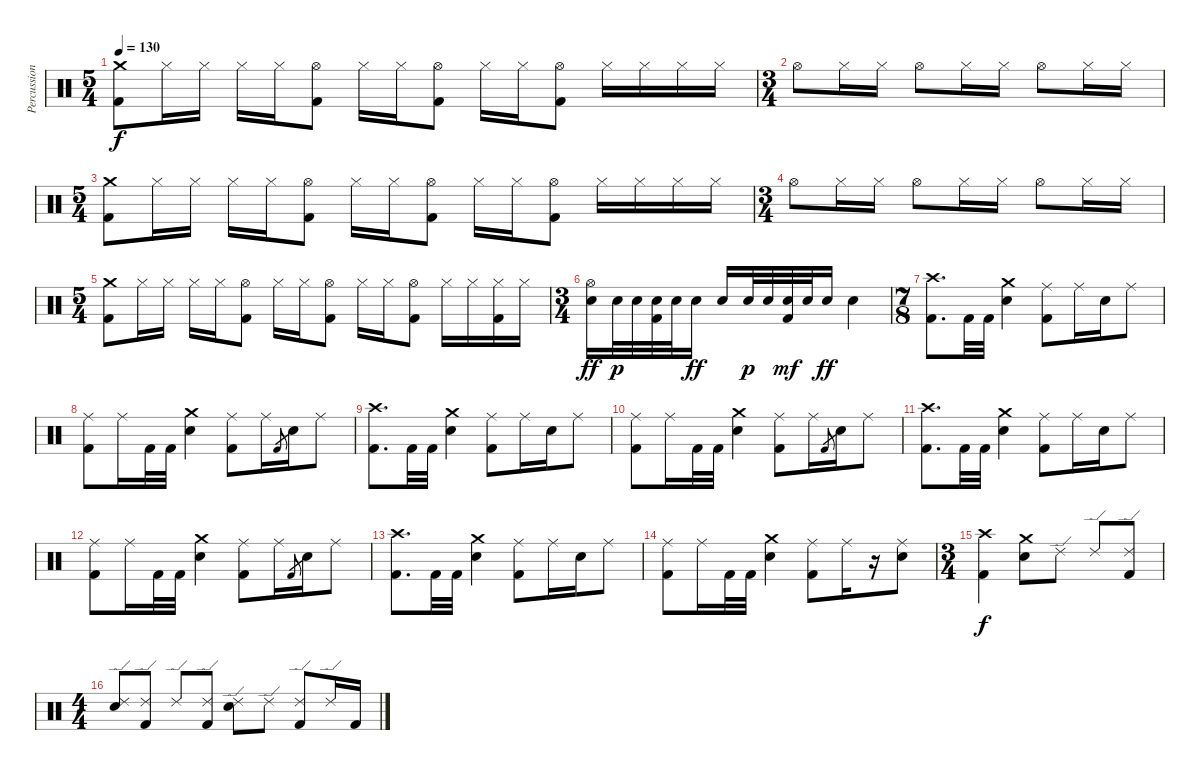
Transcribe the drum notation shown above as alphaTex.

\track ("Percussion" "Percussion") {instrument percussion}
\staff {score}
\articulation defaults
\ts (5 4)
\tempo 130
\clef neutral
\ks c
("Crash medium (hit)" "Kick (hit) 2").8{dy f} "Hi-Hat (closed)".16 "Hi-Hat (closed)".16 "Hi-Hat (closed)".16 "Hi-Hat (closed)".16 ("Hi-Hat (open)" "Kick (hit) 2").8 "Hi-Hat (closed)".16 "Hi-Hat (closed)".16 ("Hi-Hat (open)" "Kick (hit) 2").8 "Hi-Hat (closed)".16 "Hi-Hat (closed)".16 ("Hi-Hat (open)" "Kick (hit) 2").8 "Hi-Hat (closed)".16 "Hi-Hat (closed)".16 "Hi-Hat (closed)".16 "Hi-Hat (closed)".16 |
\ts (3 4)
"Hi-Hat (open)".8 "Hi-Hat (closed)".16 "Hi-Hat (closed)".16 "Hi-Hat (open)".8 "Hi-Hat (closed)".16 "Hi-Hat (closed)".16 "Hi-Hat (open)".8 "Hi-Hat (closed)".16 "Hi-Hat (closed)".16 |
\ts (5 4)
("Crash medium (hit)" "Kick (hit) 2").8 "Hi-Hat (closed)".16 "Hi-Hat (closed)".16 "Hi-Hat (closed)".16 "Hi-Hat (closed)".16 ("Hi-Hat (open)" "Kick (hit) 2").8 "Hi-Hat (closed)".16 "Hi-Hat (closed)".16 ("Hi-Hat (open)" "Kick (hit) 2").8 "Hi-Hat (closed)".16 "Hi-Hat (closed)".16 ("Hi-Hat (open)" "Kick (hit) 2").8 "Hi-Hat (closed)".16 "Hi-Hat (closed)".16 "Hi-Hat (closed)".16 "Hi-Hat (closed)".16 |
\ts (3 4)
"Hi-Hat (open)".8 "Hi-Hat (closed)".16 "Hi-Hat (closed)".16 "Hi-Hat (open)".8 "Hi-Hat (closed)".16 "Hi-Hat (closed)".16 "Hi-Hat (open)".8 "Hi-Hat (closed)".16 "Hi-Hat (closed)".16 |
\ts (5 4)
("Crash medium (hit)" "Kick (hit) 2").8 "Hi-Hat (closed)".16 "Hi-Hat (closed)".16 "Hi-Hat (closed)".16 "Hi-Hat (closed)".16 ("Hi-Hat (open)" "Kick (hit) 2").8 "Hi-Hat (closed)".16 "Hi-Hat (closed)".16 ("Hi-Hat (open)" "Kick (hit) 2").8 "Hi-Hat (closed)".16 "Hi-Hat (closed)".16 ("Hi-Hat (open)" "Kick (hit) 2").8 "Hi-Hat (closed)".16 "Hi-Hat (closed)".16 ("Hi-Hat (closed)" "Kick (hit) 2").16 "Hi-Hat (closed)".16 |
\ts (3 4)
("Hi-Hat (open)" "Electric Snare (hit)").16{dy ff} "Electric Snare (hit)".32{dy p} "Electric Snare (hit)".32 ("Electric Snare (hit)" "Kick (hit) 2").32 "Electric Snare (hit)".32 "Electric Snare (hit)".16{dy ff} "Electric Snare (hit)".16 "Electric Snare (hit)".32{dy p} "Electric Snare (hit)".32 ("Electric Snare (hit)" "Kick (hit) 2").32{dy mf} "Electric Snare (hit)".32 "Electric Snare (hit)".16{dy ff} "Electric Snare (hit)".4 |
\ts (7 8)
("Crash high (hit)" "Kick (hit) 2").8{d} "Kick (hit) 2".32 "Kick (hit) 2".32 ("Crash medium (hit)" "Electric Snare (hit)").4 ("Ride (middle)" "Kick (hit) 2").8 "Ride (middle)".16 "Electric Snare (hit)".16 "Ride (middle)".8 |
("Ride (middle)" "Kick (hit) 2").8 "Ride (middle)".16 "Kick (hit) 2".32 "Kick (hit) 2".32 ("Crash medium (hit)" "Electric Snare (hit)").4 ("Ride (middle)" "Kick (hit) 2").8 "Ride (middle)".16 "Kick (hit) 2".8{gr} "Electric Snare (hit)".16 "Ride (middle)".8 |
("Crash high (hit)" "Kick (hit) 2").8{d} "Kick (hit) 2".32 "Kick (hit) 2".32 ("Crash medium (hit)" "Electric Snare (hit)").4 ("Ride (middle)" "Kick (hit) 2").8 "Ride (middle)".16 "Electric Snare (hit)".16 "Ride (middle)".8 |
("Ride (middle)" "Kick (hit) 2").8 "Ride (middle)".16 "Kick (hit) 2".32 "Kick (hit) 2".32 ("Crash medium (hit)" "Electric Snare (hit)").4 ("Ride (middle)" "Kick (hit) 2").8 "Ride (middle)".16 "Kick (hit) 2".8{gr} "Electric Snare (hit)".16 "Ride (middle)".8 |
("Crash high (hit)" "Kick (hit) 2").8{d} "Kick (hit) 2".32 "Kick (hit) 2".32 ("Crash medium (hit)" "Electric Snare (hit)").4 ("Ride (middle)" "Kick (hit) 2").8 "Ride (middle)".16 "Electric Snare (hit)".16 "Ride (middle)".8 |
("Ride (middle)" "Kick (hit) 2").8 "Ride (middle)".16 "Kick (hit) 2".32 "Kick (hit) 2".32 ("Crash medium (hit)" "Electric Snare (hit)").4 ("Ride (middle)" "Kick (hit) 2").8 "Ride (middle)".16 "Kick (hit) 2".8{gr} "Electric Snare (hit)".16 "Ride (middle)".8 |
("Crash high (hit)" "Kick (hit) 2").8{d} "Kick (hit) 2".32 "Kick (hit) 2".32 ("Crash medium (hit)" "Electric Snare (hit)").4 ("Ride (middle)" "Kick (hit) 2").8 "Ride (middle)".16 "Electric Snare (hit)".16 "Ride (middle)".8 |
("Ride (middle)" "Kick (hit) 2").8 "Ride (middle)".16 "Kick (hit) 2".32 "Kick (hit) 2".32 ("Crash medium (hit)" "Electric Snare (hit)").4 ("Ride (middle)" "Kick (hit) 2").8 "Ride (middle)".16 r.16 ("Ride (middle)" "Electric Snare (hit)").8 |
\ts (3 4)
("Crash high (hit)" "Kick (hit) 2").4{dy f} ("Crash medium (hit)" "Electric Snare (hit)").8 "Ride (edge) 2".8 "Ride (edge) 2".8 ("Ride (edge) 2" "Kick (hit) 2").8 |
\ts (4 4)
("Ride (edge) 2" "Electric Snare (hit)").8 ("Ride (edge) 2" "Kick (hit) 2").8 "Ride (edge) 2".8 ("Ride (edge) 2" "Kick (hit) 2").8 ("Ride (edge) 2" "Electric Snare (hit)").8 "Ride (edge) 2".8 ("Ride (edge) 2" "Kick (hit) 2").8 "Ride (edge) 2".16 "Kick (hit) 2".16
